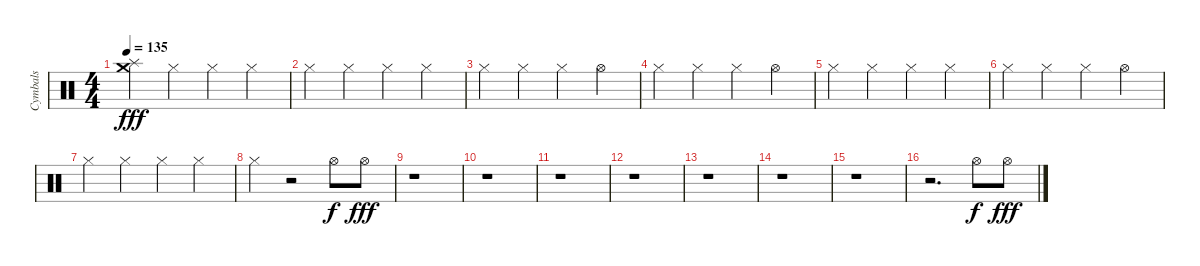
\track ("Cymbals" "Cymbals") {instrument percussion}
\staff {score}
\articulation defaults
\ts (4 4)
\tempo 135
\clef neutral
\ks c
("Crash medium (hit)" "Splash (hit)").4{dy fff} "Hi-Hat (closed)".4 "Hi-Hat (closed)".4 "Hi-Hat (closed)".4 |
"Hi-Hat (closed)".4 "Hi-Hat (closed)".4 "Hi-Hat (closed)".4 "Hi-Hat (closed)".4 |
"Hi-Hat (closed)".4 "Hi-Hat (closed)".4 "Hi-Hat (closed)".4 "Hi-Hat (open)".4 |
"Hi-Hat (closed)".4 "Hi-Hat (closed)".4 "Hi-Hat (closed)".4 "Hi-Hat (open)".4 |
"Hi-Hat (closed)".4 "Hi-Hat (closed)".4 "Hi-Hat (closed)".4 "Hi-Hat (closed)".4 |
"Hi-Hat (closed)".4 "Hi-Hat (closed)".4 "Hi-Hat (closed)".4 "Hi-Hat (open)".4 |
"Hi-Hat (closed)".4 "Hi-Hat (closed)".4 "Hi-Hat (closed)".4 "Hi-Hat (closed)".4 |
"Hi-Hat (closed)".4 r.2 "Hi-Hat (open)".8{dy f} "Hi-Hat (open)".8{dy fff} |
r.1 |
r.1 |
r.1 |
r.1 |
r.1 |
r.1 |
r.1 |
r.2{d} "Hi-Hat (open)".8{dy f} "Hi-Hat (open)".8{dy fff}
